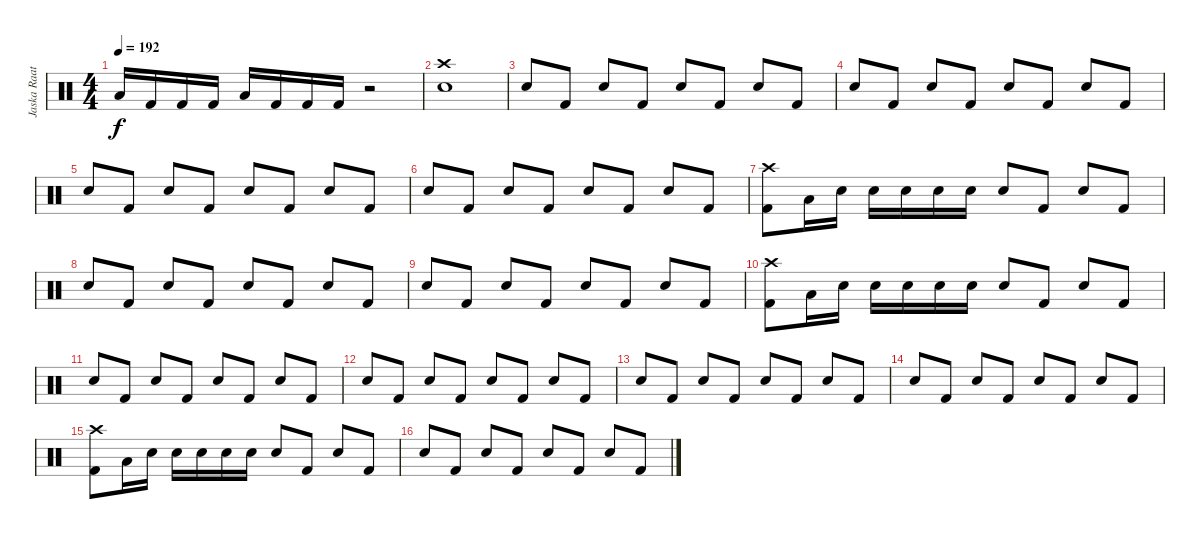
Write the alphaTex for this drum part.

\track ("Jaska Raatikainen " "Jaska Raat") {instrument percussion}
\staff {score}
\articulation defaults
\ts (4 4)
\tempo 192
\clef neutral
\ks c "Low Floor Tom (hit)".16{dy f} "Kick (hit) 2".16 "Kick (hit) 2".16 "Kick (hit) 2".16 "Low Floor Tom (hit)".16 "Kick (hit) 2".16 "Kick (hit) 2".16 "Kick (hit) 2".16
r.2 |
("Snare (hit) 2" "Crash high (hit)").1 |
"Snare (hit) 2".8 "Kick (hit) 2".8 "Snare (hit) 2".8 "Kick (hit) 2".8 "Snare (hit) 2".8 "Kick (hit) 2".8 "Snare (hit) 2".8 "Kick (hit) 2".8 |
"Snare (hit) 2".8 "Kick (hit) 2".8 "Snare (hit) 2".8 "Kick (hit) 2".8 "Snare (hit) 2".8 "Kick (hit) 2".8 "Snare (hit) 2".8 "Kick (hit) 2".8 |
"Snare (hit) 2".8 "Kick (hit) 2".8 "Snare (hit) 2".8 "Kick (hit) 2".8 "Snare (hit) 2".8 "Kick (hit) 2".8 "Snare (hit) 2".8 "Kick (hit) 2".8 |
"Snare (hit) 2".8 "Kick (hit) 2".8 "Snare (hit) 2".8 "Kick (hit) 2".8 "Snare (hit) 2".8 "Kick (hit) 2".8 "Snare (hit) 2".8 "Kick (hit) 2".8 |
("Crash high (hit)" "Kick (hit) 2").8 "Low Floor Tom (hit)".16 "Snare (hit) 2".16 "Snare (hit) 2".16 "Snare (hit) 2".16 "Snare (hit) 2".16 "Snare (hit) 2".16 "Snare (hit) 2".8 "Kick (hit) 2".8 "Snare (hit) 2".8 "Kick (hit) 2".8 |
"Snare (hit) 2".8 "Kick (hit) 2".8 "Snare (hit) 2".8 "Kick (hit) 2".8 "Snare (hit) 2".8 "Kick (hit) 2".8 "Snare (hit) 2".8 "Kick (hit) 2".8 |
"Snare (hit) 2".8 "Kick (hit) 2".8 "Snare (hit) 2".8 "Kick (hit) 2".8 "Snare (hit) 2".8 "Kick (hit) 2".8 "Snare (hit) 2".8 "Kick (hit) 2".8 |
("Crash high (hit)" "Kick (hit) 2").8 "Low Floor Tom (hit)".16 "Snare (hit) 2".16 "Snare (hit) 2".16 "Snare (hit) 2".16 "Snare (hit) 2".16 "Snare (hit) 2".16 "Snare (hit) 2".8 "Kick (hit) 2".8 "Snare (hit) 2".8 "Kick (hit) 2".8 |
"Snare (hit) 2".8 "Kick (hit) 2".8 "Snare (hit) 2".8 "Kick (hit) 2".8 "Snare (hit) 2".8 "Kick (hit) 2".8 "Snare (hit) 2".8 "Kick (hit) 2".8 |
"Snare (hit) 2".8 "Kick (hit) 2".8 "Snare (hit) 2".8 "Kick (hit) 2".8 "Snare (hit) 2".8 "Kick (hit) 2".8 "Snare (hit) 2".8 "Kick (hit) 2".8 |
"Snare (hit) 2".8 "Kick (hit) 2".8 "Snare (hit) 2".8 "Kick (hit) 2".8 "Snare (hit) 2".8 "Kick (hit) 2".8 "Snare (hit) 2".8 "Kick (hit) 2".8 |
"Snare (hit) 2".8 "Kick (hit) 2".8 "Snare (hit) 2".8 "Kick (hit) 2".8 "Snare (hit) 2".8 "Kick (hit) 2".8 "Snare (hit) 2".8 "Kick (hit) 2".8 |
("Crash high (hit)" "Kick (hit) 2").8 "Low Floor Tom (hit)".16 "Snare (hit) 2".16 "Snare (hit) 2".16 "Snare (hit) 2".16 "Snare (hit) 2".16 "Snare (hit) 2".16 "Snare (hit) 2".8 "Kick (hit) 2".8 "Snare (hit) 2".8 "Kick (hit) 2".8 |
"Snare (hit) 2".8 "Kick (hit) 2".8 "Snare (hit) 2".8 "Kick (hit) 2".8 "Snare (hit) 2".8 "Kick (hit) 2".8 "Snare (hit) 2".8 "Kick (hit) 2".8
